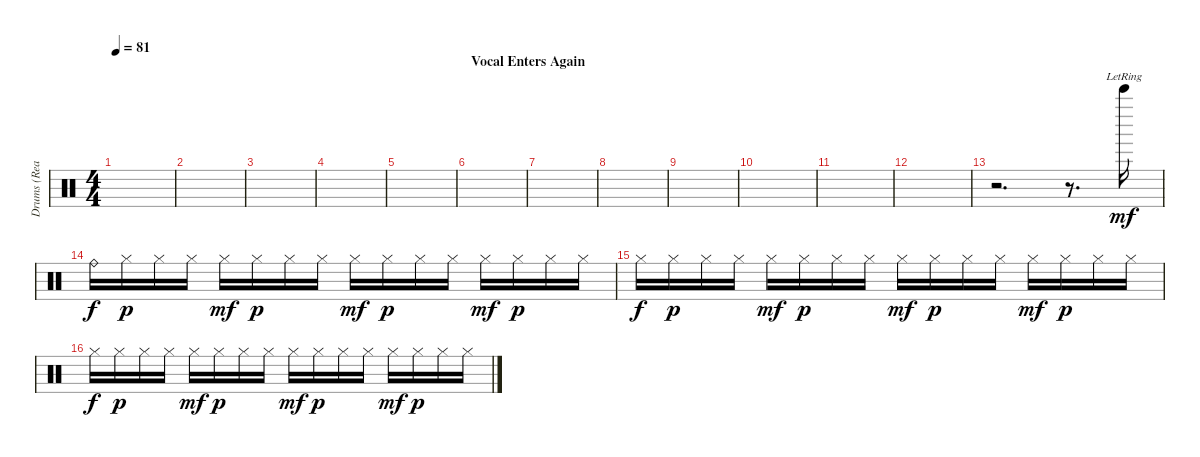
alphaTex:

\track ("Drums (Real)" "Drums (Rea") {instrument percussion}
\staff {score}
\articulation defaults
\ts (4 4)
\tempo 81
\clef neutral
\ks c
|
|
|
|
|
\section ("" "Vocal Enters Again")
|
|
|
|
|
|
|
r.2{d} r.8{d} "Bell Tree (hit)"{lr}.16{dy mf} |
"Ride (bell)".16{dy f} "Hi-Hat (closed)".16{dy p} "Hi-Hat (closed)".16 "Hi-Hat (closed)".16 "Hi-Hat (closed)".16{dy mf} "Hi-Hat (closed)".16{dy p} "Hi-Hat (closed)".16 "Hi-Hat (closed)".16 "Hi-Hat (closed)".16{dy mf} "Hi-Hat (closed)".16{dy p} "Hi-Hat (closed)".16 "Hi-Hat (closed)".16 "Hi-Hat (closed)".16{dy mf} "Hi-Hat (closed)".16{dy p} "Hi-Hat (closed)".16 "Hi-Hat (closed)".16 |
"Hi-Hat (closed)".16{dy f} "Hi-Hat (closed)".16{dy p} "Hi-Hat (closed)".16 "Hi-Hat (closed)".16 "Hi-Hat (closed)".16{dy mf} "Hi-Hat (closed)".16{dy p} "Hi-Hat (closed)".16 "Hi-Hat (closed)".16 "Hi-Hat (closed)".16{dy mf} "Hi-Hat (closed)".16{dy p} "Hi-Hat (closed)".16 "Hi-Hat (closed)".16 "Hi-Hat (closed)".16{dy mf} "Hi-Hat (closed)".16{dy p} "Hi-Hat (closed)".16 "Hi-Hat (closed)".16 |
"Hi-Hat (closed)".16{dy f} "Hi-Hat (closed)".16{dy p} "Hi-Hat (closed)".16 "Hi-Hat (closed)".16 "Hi-Hat (closed)".16{dy mf} "Hi-Hat (closed)".16{dy p} "Hi-Hat (closed)".16 "Hi-Hat (closed)".16 "Hi-Hat (closed)".16{dy mf} "Hi-Hat (closed)".16{dy p} "Hi-Hat (closed)".16 "Hi-Hat (closed)".16 "Hi-Hat (closed)".16{dy mf} "Hi-Hat (closed)".16{dy p} "Hi-Hat (closed)".16 "Hi-Hat (closed)".16
